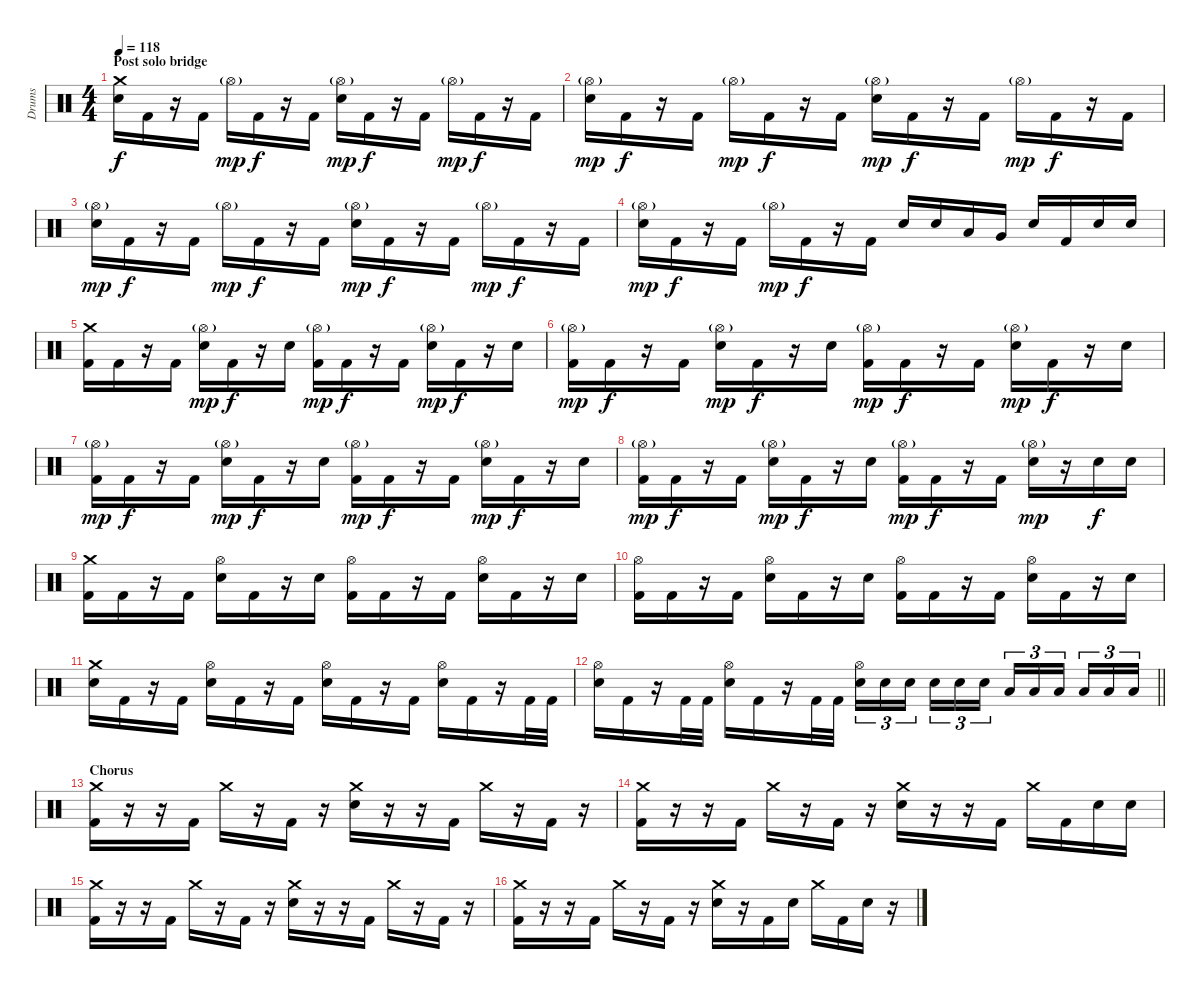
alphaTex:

\track ("Drums" "Drums") {instrument percussion}
\staff {score}
\articulation defaults
\ts (4 4)
\section ("" "Post solo bridge")
\tempo 118
\clef neutral
\ks c
("Crash medium (hit)" "Electric Snare (hit)").16{dy f} "Kick (hit) 2".16 r.16 "Kick (hit) 2".16 "Hi-Hat (open)"{g}.16{dy mp} "Kick (hit) 2".16{dy f} r.16 "Kick (hit) 2".16 ("Hi-Hat (open)"{g} "Electric Snare (hit)").16{dy mp} "Kick (hit) 2".16{dy f} r.16 "Kick (hit) 2".16 "Hi-Hat (open)"{g}.16{dy mp} "Kick (hit) 2".16{dy f} r.16 "Kick (hit) 2".16 |
("Hi-Hat (open)"{g} "Electric Snare (hit)").16{dy mp} "Kick (hit) 2".16{dy f} r.16 "Kick (hit) 2".16 "Hi-Hat (open)"{g}.16{dy mp} "Kick (hit) 2".16{dy f} r.16 "Kick (hit) 2".16 ("Hi-Hat (open)"{g} "Electric Snare (hit)").16{dy mp} "Kick (hit) 2".16{dy f} r.16 "Kick (hit) 2".16 "Hi-Hat (open)"{g}.16{dy mp} "Kick (hit) 2".16{dy f} r.16 "Kick (hit) 2".16 |
("Hi-Hat (open)"{g} "Electric Snare (hit)").16{dy mp} "Kick (hit) 2".16{dy f} r.16 "Kick (hit) 2".16 "Hi-Hat (open)"{g}.16{dy mp} "Kick (hit) 2".16{dy f} r.16 "Kick (hit) 2".16 ("Hi-Hat (open)"{g} "Electric Snare (hit)").16{dy mp} "Kick (hit) 2".16{dy f} r.16 "Kick (hit) 2".16 "Hi-Hat (open)"{g}.16{dy mp} "Kick (hit) 2".16{dy f} r.16 "Kick (hit) 2".16 |
("Hi-Hat (open)"{g} "Electric Snare (hit)").16{dy mp} "Kick (hit) 2".16{dy f} r.16 "Kick (hit) 2".16 "Hi-Hat (open)"{g}.16{dy mp} "Kick (hit) 2".16{dy f} r.16 "Kick (hit) 2".16 "Electric Snare (hit)".16 "Electric Snare (hit)".16 "Low Tom (hit)".16 "Very Low Tom (hit)".16 "Electric Snare (hit)".16 "Kick (hit) 2".16 "Electric Snare (hit)".16 "Electric Snare (hit)".16 |
("Crash medium (hit)" "Kick (hit) 2").16 "Kick (hit) 2".16 r.16 "Kick (hit) 2".16 ("Hi-Hat (open)"{g} "Electric Snare (hit)").16{dy mp} "Kick (hit) 2".16{dy f} r.16 "Electric Snare (hit)".16 ("Hi-Hat (open)"{g} "Kick (hit) 2").16{dy mp} "Kick (hit) 2".16{dy f} r.16 "Kick (hit) 2".16 ("Hi-Hat (open)"{g} "Electric Snare (hit)").16{dy mp} "Kick (hit) 2".16{dy f} r.16 "Electric Snare (hit)".16 |
("Hi-Hat (open)"{g} "Kick (hit) 2").16{dy mp} "Kick (hit) 2".16{dy f} r.16 "Kick (hit) 2".16 ("Hi-Hat (open)"{g} "Electric Snare (hit)").16{dy mp} "Kick (hit) 2".16{dy f} r.16 "Electric Snare (hit)".16 ("Hi-Hat (open)"{g} "Kick (hit) 2").16{dy mp} "Kick (hit) 2".16{dy f} r.16 "Kick (hit) 2".16 ("Hi-Hat (open)"{g} "Electric Snare (hit)").16{dy mp} "Kick (hit) 2".16{dy f} r.16 "Electric Snare (hit)".16 |
("Hi-Hat (open)"{g} "Kick (hit) 2").16{dy mp} "Kick (hit) 2".16{dy f} r.16 "Kick (hit) 2".16 ("Hi-Hat (open)"{g} "Electric Snare (hit)").16{dy mp} "Kick (hit) 2".16{dy f} r.16 "Electric Snare (hit)".16 ("Hi-Hat (open)"{g} "Kick (hit) 2").16{dy mp} "Kick (hit) 2".16{dy f} r.16 "Kick (hit) 2".16 ("Hi-Hat (open)"{g} "Electric Snare (hit)").16{dy mp} "Kick (hit) 2".16{dy f} r.16 "Electric Snare (hit)".16 |
("Hi-Hat (open)"{g} "Kick (hit) 2").16{dy mp} "Kick (hit) 2".16{dy f} r.16 "Kick (hit) 2".16 ("Hi-Hat (open)"{g} "Electric Snare (hit)").16{dy mp} "Kick (hit) 2".16{dy f} r.16 "Electric Snare (hit)".16 ("Hi-Hat (open)"{g} "Kick (hit) 2").16{dy mp} "Kick (hit) 2".16{dy f} r.16 "Kick (hit) 2".16 ("Hi-Hat (open)"{g} "Electric Snare (hit)").16{dy mp} r.16 "Electric Snare (hit)".16{dy f} "Electric Snare (hit)".16 |
("Crash medium (hit)" "Kick (hit) 2").16 "Kick (hit) 2".16 r.16 "Kick (hit) 2".16 ("Hi-Hat (open)" "Electric Snare (hit)").16 "Kick (hit) 2".16 r.16 "Electric Snare (hit)".16 ("Hi-Hat (open)" "Kick (hit) 2").16 "Kick (hit) 2".16 r.16 "Kick (hit) 2".16 ("Hi-Hat (open)" "Electric Snare (hit)").16 "Kick (hit) 2".16 r.16 "Electric Snare (hit)".16 |
("Hi-Hat (open)" "Kick (hit) 2").16 "Kick (hit) 2".16 r.16 "Kick (hit) 2".16 ("Hi-Hat (open)" "Electric Snare (hit)").16 "Kick (hit) 2".16 r.16 "Electric Snare (hit)".16 ("Hi-Hat (open)" "Kick (hit) 2").16 "Kick (hit) 2".16 r.16 "Kick (hit) 2".16 ("Hi-Hat (open)" "Electric Snare (hit)").16 "Kick (hit) 2".16 r.16 "Electric Snare (hit)".16 |
("Crash medium (hit)" "Electric Snare (hit)").16 "Kick (hit) 2".16 r.16 "Kick (hit) 2".16 ("Hi-Hat (open)" "Electric Snare (hit)").16 "Kick (hit) 2".16 r.16 "Kick (hit) 2".16 ("Hi-Hat (open)" "Electric Snare (hit)").16 "Kick (hit) 2".16 r.16 "Kick (hit) 2".16 ("Hi-Hat (open)" "Electric Snare (hit)").16 "Kick (hit) 2".16 r.16 "Kick (hit) 2".32 "Kick (hit) 2".32 |
\barLineRight lightlight
("Hi-Hat (open)" "Electric Snare (hit)").16 "Kick (hit) 2".16 r.16 "Kick (hit) 2".32 "Kick (hit) 2".32 ("Hi-Hat (open)" "Electric Snare (hit)").16 "Kick (hit) 2".16 r.16 "Kick (hit) 2".32 "Kick (hit) 2".32 ("Hi-Hat (open)" "Electric Snare (hit)").16{tu (3 2)} "Electric Snare (hit)".16{tu (3 2)} "Electric Snare (hit)".16{tu (3 2) beam splitsecondary} "Electric Snare (hit)".16{tu (3 2)} "Electric Snare (hit)".16{tu (3 2)} "Electric Snare (hit)".16{tu (3 2)} "Low Tom (hit)".16{tu (3 2)} "Low Tom (hit)".16{tu (3 2)} "Low Tom (hit)".16{tu (3 2) beam splitsecondary} "Low Tom (hit)".16{tu (3 2)} "Low Tom (hit)".16{tu (3 2)} "Low Tom (hit)".16{tu (3 2)} |
\section ("" "Chorus")
("Crash medium (hit)" "Kick (hit) 2").16 r.16 r.16 "Kick (hit) 2".16 "Crash medium (hit)".16 r.16 "Kick (hit) 2".16 r.16 ("Crash medium (hit)" "Electric Snare (hit)").16 r.16 r.16 "Kick (hit) 2".16 "Crash medium (hit)".16 r.16 "Kick (hit) 2".16 r.16 |
("Crash medium (hit)" "Kick (hit) 2").16 r.16 r.16 "Kick (hit) 2".16 "Crash medium (hit)".16 r.16 "Kick (hit) 2".16 r.16 ("Crash medium (hit)" "Electric Snare (hit)").16 r.16 r.16 "Kick (hit) 2".16 "Crash medium (hit)".16 "Kick (hit) 2".16 "Electric Snare (hit)".16 "Electric Snare (hit)".16 |
("Crash medium (hit)" "Kick (hit) 2").16 r.16 r.16 "Kick (hit) 2".16 "Crash medium (hit)".16 r.16 "Kick (hit) 2".16 r.16 ("Crash medium (hit)" "Electric Snare (hit)").16 r.16 r.16 "Kick (hit) 2".16 "Crash medium (hit)".16 r.16 "Kick (hit) 2".16 r.16 |
("Crash medium (hit)" "Kick (hit) 2").16 r.16 r.16 "Kick (hit) 2".16 "Crash medium (hit)".16 r.16 "Kick (hit) 2".16 r.16 ("Crash medium (hit)" "Electric Snare (hit)").16 r.16 "Kick (hit) 2".16 "Electric Snare (hit)".16 "Crash medium (hit)".16 "Kick (hit) 2".16 "Electric Snare (hit)".16 r.16
